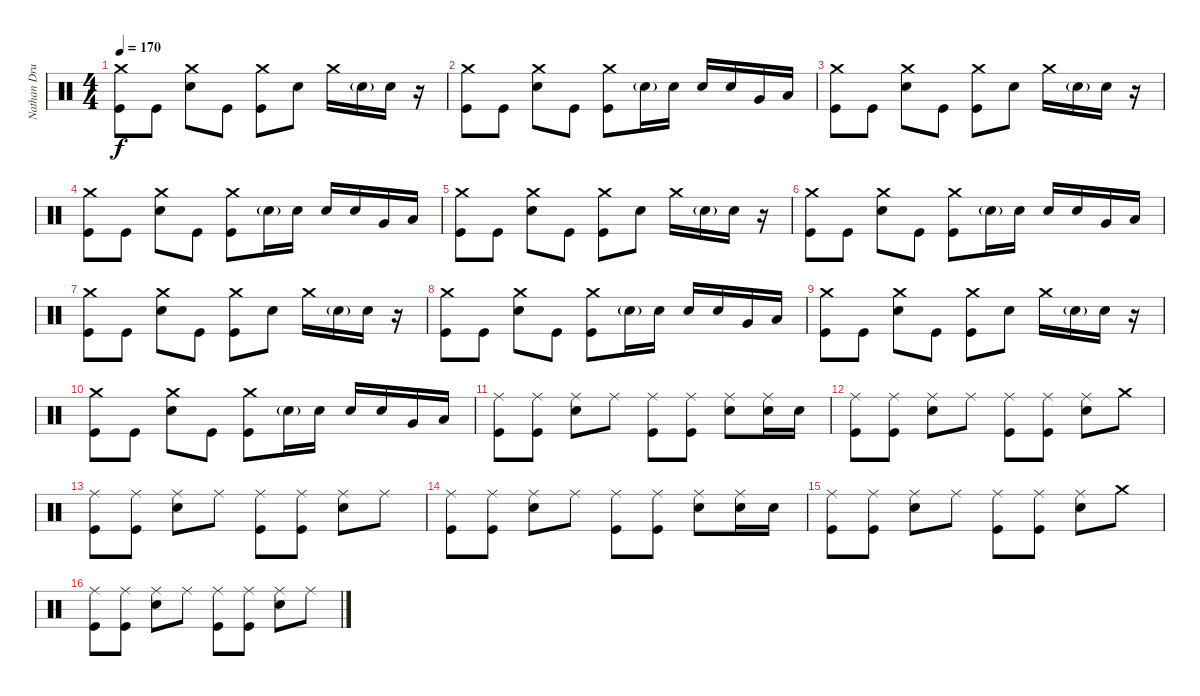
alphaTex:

\track ("Nathan Drum Programming" "Nathan Dru") {instrument percussion}
\staff {score}
\articulation defaults
\ts (4 4)
\tempo 170
\clef neutral
\ks c
("Kick (hit)" "Crash medium (hit)").8{dy f} "Kick (hit)".8 ("Crash medium (hit)" "Snare (hit) 2").8 "Kick (hit)".8 ("Kick (hit)" "Crash medium (hit)").8 "Snare (hit) 2".8 "Crash medium (hit)".16 "Snare (hit) 2"{g}.16 "Snare (hit) 2".16 r.16 |
("Kick (hit)" "Crash medium (hit)").8 "Kick (hit)".8 ("Crash medium (hit)" "Snare (hit) 2").8 "Kick (hit)".8 ("Kick (hit)" "Crash medium (hit)").8 "Snare (hit) 2"{g}.16 "Snare (hit) 2".16 "Snare (hit) 2".16 "Snare (hit) 2".16 "Very Low Tom (hit)".16 "Low Floor Tom (hit)".16 |
("Kick (hit)" "Crash medium (hit)").8 "Kick (hit)".8 ("Crash medium (hit)" "Snare (hit) 2").8 "Kick (hit)".8 ("Kick (hit)" "Crash medium (hit)").8 "Snare (hit) 2".8 "Crash medium (hit)".16 "Snare (hit) 2"{g}.16 "Snare (hit) 2".16 r.16 |
("Kick (hit)" "Crash medium (hit)").8 "Kick (hit)".8 ("Crash medium (hit)" "Snare (hit) 2").8 "Kick (hit)".8 ("Kick (hit)" "Crash medium (hit)").8 "Snare (hit) 2"{g}.16 "Snare (hit) 2".16 "Snare (hit) 2".16 "Snare (hit) 2".16 "Very Low Tom (hit)".16 "Low Floor Tom (hit)".16 |
("Kick (hit)" "Crash medium (hit)").8 "Kick (hit)".8 ("Crash medium (hit)" "Snare (hit) 2").8 "Kick (hit)".8 ("Kick (hit)" "Crash medium (hit)").8 "Snare (hit) 2".8 "Crash medium (hit)".16 "Snare (hit) 2"{g}.16 "Snare (hit) 2".16 r.16 |
("Kick (hit)" "Crash medium (hit)").8 "Kick (hit)".8 ("Crash medium (hit)" "Snare (hit) 2").8 "Kick (hit)".8 ("Kick (hit)" "Crash medium (hit)").8 "Snare (hit) 2"{g}.16 "Snare (hit) 2".16 "Snare (hit) 2".16 "Snare (hit) 2".16 "Very Low Tom (hit)".16 "Low Floor Tom (hit)".16 |
("Kick (hit)" "Crash medium (hit)").8 "Kick (hit)".8 ("Crash medium (hit)" "Snare (hit) 2").8 "Kick (hit)".8 ("Kick (hit)" "Crash medium (hit)").8 "Snare (hit) 2".8 "Crash medium (hit)".16 "Snare (hit) 2"{g}.16 "Snare (hit) 2".16 r.16 |
("Kick (hit)" "Crash medium (hit)").8 "Kick (hit)".8 ("Crash medium (hit)" "Snare (hit) 2").8 "Kick (hit)".8 ("Kick (hit)" "Crash medium (hit)").8 "Snare (hit) 2"{g}.16 "Snare (hit) 2".16 "Snare (hit) 2".16 "Snare (hit) 2".16 "Very Low Tom (hit)".16 "Low Floor Tom (hit)".16 |
("Kick (hit)" "Crash medium (hit)").8 "Kick (hit)".8 ("Crash medium (hit)" "Snare (hit) 2").8 "Kick (hit)".8 ("Kick (hit)" "Crash medium (hit)").8 "Snare (hit) 2".8 "Crash medium (hit)".16 "Snare (hit) 2"{g}.16 "Snare (hit) 2".16 r.16 |
("Kick (hit)" "Crash medium (hit)").8 "Kick (hit)".8 ("Crash medium (hit)" "Snare (hit) 2").8 "Kick (hit)".8 ("Kick (hit)" "Crash medium (hit)").8 "Snare (hit) 2"{g}.16 "Snare (hit) 2".16 "Snare (hit) 2".16 "Snare (hit) 2".16 "Very Low Tom (hit)".16 "Low Floor Tom (hit)".16 |
("Ride (middle)" "Kick (hit)").8 ("Ride (middle)" "Kick (hit)").8 ("Ride (middle)" "Snare (hit) 2").8 "Ride (middle)".8 ("Ride (middle)" "Kick (hit)").8 ("Ride (middle)" "Kick (hit)").8 ("Ride (middle)" "Snare (hit) 2").8 ("Ride (middle)" "Snare (hit) 2").16 "Snare (hit) 2".16 |
("Ride (middle)" "Kick (hit)").8 ("Ride (middle)" "Kick (hit)").8 ("Ride (middle)" "Snare (hit) 2").8 "Ride (middle)".8 ("Ride (middle)" "Kick (hit)").8 ("Ride (middle)" "Kick (hit)").8 ("Ride (middle)" "Snare (hit) 2").8 "Crash medium (hit)".8 |
("Ride (middle)" "Kick (hit)").8 ("Ride (middle)" "Kick (hit)").8 ("Ride (middle)" "Snare (hit) 2").8 "Ride (middle)".8 ("Ride (middle)" "Kick (hit)").8 ("Ride (middle)" "Kick (hit)").8 ("Ride (middle)" "Snare (hit) 2").8 "Ride (middle)".8 |
("Ride (middle)" "Kick (hit)").8 ("Ride (middle)" "Kick (hit)").8 ("Ride (middle)" "Snare (hit) 2").8 "Ride (middle)".8 ("Ride (middle)" "Kick (hit)").8 ("Ride (middle)" "Kick (hit)").8 ("Ride (middle)" "Snare (hit) 2").8 ("Ride (middle)" "Snare (hit) 2").16 "Snare (hit) 2".16 |
("Ride (middle)" "Kick (hit)").8 ("Ride (middle)" "Kick (hit)").8 ("Ride (middle)" "Snare (hit) 2").8 "Ride (middle)".8 ("Ride (middle)" "Kick (hit)").8 ("Ride (middle)" "Kick (hit)").8 ("Ride (middle)" "Snare (hit) 2").8 "Crash medium (hit)".8 |
("Ride (middle)" "Kick (hit)").8 ("Ride (middle)" "Kick (hit)").8 ("Ride (middle)" "Snare (hit) 2").8 "Ride (middle)".8 ("Ride (middle)" "Kick (hit)").8 ("Ride (middle)" "Kick (hit)").8 ("Ride (middle)" "Snare (hit) 2").8 "Ride (middle)".8
